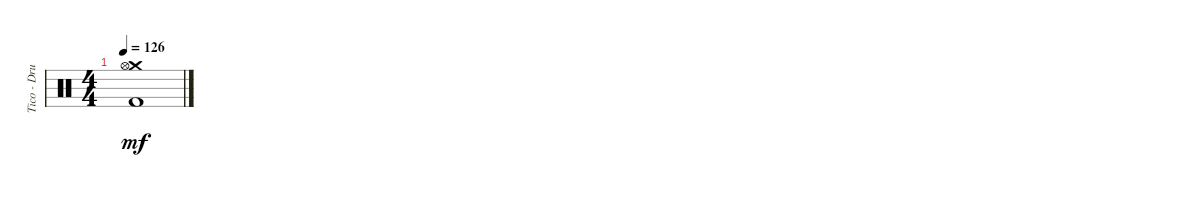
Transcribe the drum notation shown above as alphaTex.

\track ("Tico - Drums" "Tico - Dru") {instrument percussion}
\staff {score}
\articulation defaults
\ts (4 4)
\tempo 126
\clef neutral
\ks c
("Crash medium (hit)" "Kick (hit) 2" "Hi-Hat (open)").1{dy mf}
